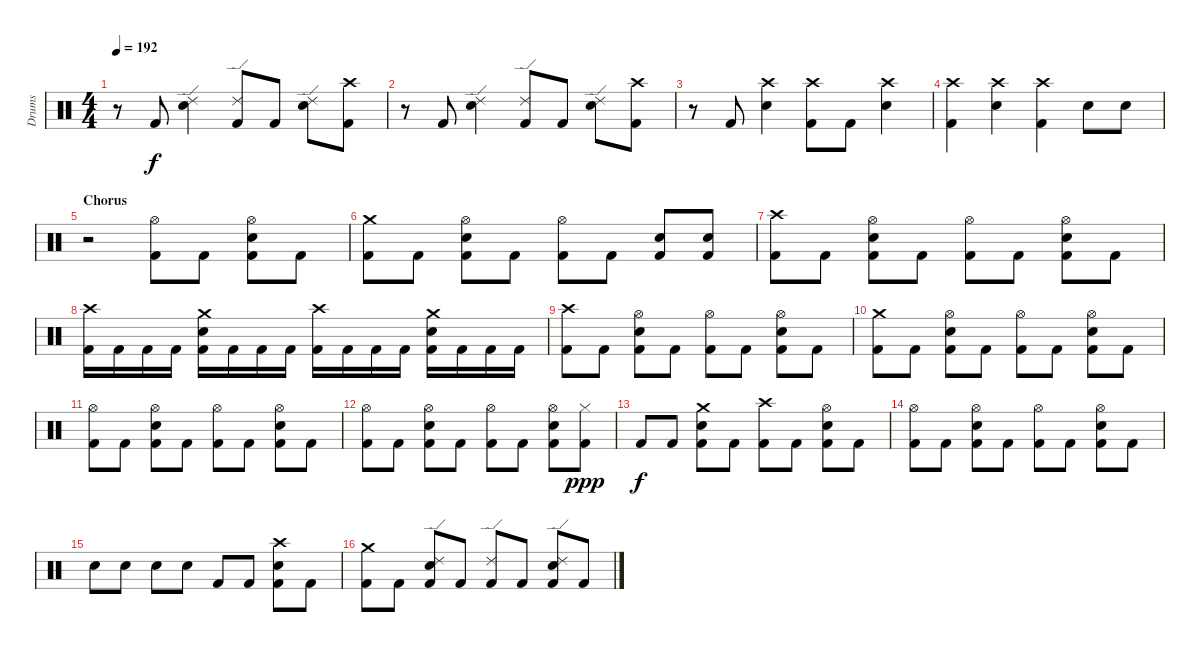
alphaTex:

\track ("Drums" "Drums") {instrument percussion}
\staff {score}
\articulation defaults
\ts (4 4)
\tempo 192
\clef neutral
\ks c
r.8{dy f} "Kick (hit) 2".8 ("Electric Snare (hit)" "Ride (edge) 2").4 ("Kick (hit) 2" "Ride (edge) 2").8 "Kick (hit) 2".8 ("Electric Snare (hit)" "Ride (edge) 2").8 ("Kick (hit) 2" "Crash high (hit)").8 |
r.8 "Kick (hit) 2".8 ("Electric Snare (hit)" "Ride (edge) 2").4 ("Kick (hit) 2" "Ride (edge) 2").8 "Kick (hit) 2".8 ("Electric Snare (hit)" "Ride (edge) 2").8 ("Kick (hit) 2" "Crash high (hit)").8 |
r.8 "Kick (hit) 2".8 ("Electric Snare (hit)" "Crash high (hit)").4 ("Kick (hit) 2" "Crash high (hit)").8 "Kick (hit) 2".8 ("Electric Snare (hit)" "Crash high (hit)").4 |
("Kick (hit) 2" "Crash high (hit)").4 ("Electric Snare (hit)" "Crash high (hit)").4 ("Kick (hit) 2" "Crash high (hit)").4 "Electric Snare (hit)".8 "Electric Snare (hit)".8 |
\section ("" "Chorus")
r.2 ("Kick (hit) 2" "Hi-Hat (open)").8 "Kick (hit) 2".8 ("Kick (hit) 2" "Electric Snare (hit)" "Hi-Hat (open)").8 "Kick (hit) 2".8 |
("Kick (hit) 2" "Crash medium (hit)").8 "Kick (hit) 2".8 ("Kick (hit) 2" "Electric Snare (hit)" "Hi-Hat (open)").8 "Kick (hit) 2".8 ("Kick (hit) 2" "Hi-Hat (open)").8 "Kick (hit) 2".8 ("Kick (hit) 2" "Electric Snare (hit)").8 ("Kick (hit) 2" "Electric Snare (hit)").8 |
("Kick (hit) 2" "Crash high (hit)").8 "Kick (hit) 2".8 ("Kick (hit) 2" "Electric Snare (hit)" "Hi-Hat (open)").8 "Kick (hit) 2".8 ("Kick (hit) 2" "Hi-Hat (open)").8 "Kick (hit) 2".8 ("Kick (hit) 2" "Electric Snare (hit)" "Hi-Hat (open)").8 "Kick (hit) 2".8 |
("Kick (hit) 2" "Crash high (hit)").16 "Kick (hit) 2".16 "Kick (hit) 2".16 "Kick (hit) 2".16 ("Kick (hit) 2" "Electric Snare (hit)" "Crash medium (hit)").16 "Kick (hit) 2".16 "Kick (hit) 2".16 "Kick (hit) 2".16 ("Kick (hit) 2" "Crash high (hit)").16 "Kick (hit) 2".16 "Kick (hit) 2".16 "Kick (hit) 2".16 ("Kick (hit) 2" "Electric Snare (hit)" "Crash medium (hit)").16 "Kick (hit) 2".16 "Kick (hit) 2".16 "Kick (hit) 2".16 |
("Kick (hit) 2" "Crash high (hit)").8 "Kick (hit) 2".8 ("Kick (hit) 2" "Electric Snare (hit)" "Hi-Hat (open)").8 "Kick (hit) 2".8 ("Kick (hit) 2" "Hi-Hat (open)").8 "Kick (hit) 2".8 ("Kick (hit) 2" "Electric Snare (hit)" "Hi-Hat (open)").8 "Kick (hit) 2".8 |
("Kick (hit) 2" "Crash medium (hit)").8 "Kick (hit) 2".8 ("Kick (hit) 2" "Electric Snare (hit)" "Hi-Hat (open)").8 "Kick (hit) 2".8 ("Kick (hit) 2" "Hi-Hat (open)").8 "Kick (hit) 2".8 ("Kick (hit) 2" "Electric Snare (hit)" "Hi-Hat (open)").8 "Kick (hit) 2".8 |
("Kick (hit) 2" "Hi-Hat (open)").8 "Kick (hit) 2".8 ("Kick (hit) 2" "Electric Snare (hit)" "Hi-Hat (open)").8 "Kick (hit) 2".8 ("Kick (hit) 2" "Hi-Hat (open)").8 "Kick (hit) 2".8 ("Kick (hit) 2" "Electric Snare (hit)" "Hi-Hat (open)").8 "Kick (hit) 2".8 |
("Kick (hit) 2" "Hi-Hat (open)").8 "Kick (hit) 2".8 ("Kick (hit) 2" "Electric Snare (hit)" "Hi-Hat (open)").8 "Kick (hit) 2".8 ("Kick (hit) 2" "Hi-Hat (open)").8 "Kick (hit) 2".8 ("Kick (hit) 2" "Electric Snare (hit)" "Hi-Hat (open)").8 ("Kick (hit) 2" "Hi-Hat (closed)").8{dy ppp} |
"Kick (hit) 2".8{dy f} "Kick (hit) 2".8 ("Kick (hit) 2" "Electric Snare (hit)" "Crash medium (hit)").8 "Kick (hit) 2".8 ("Kick (hit) 2" "Crash high (hit)").8 "Kick (hit) 2".8 ("Kick (hit) 2" "Electric Snare (hit)" "Hi-Hat (open)").8 "Kick (hit) 2".8 |
("Kick (hit) 2" "Hi-Hat (open)").8 "Kick (hit) 2".8 ("Kick (hit) 2" "Electric Snare (hit)" "Hi-Hat (open)").8 "Kick (hit) 2".8 ("Kick (hit) 2" "Hi-Hat (open)").8 "Kick (hit) 2".8 ("Kick (hit) 2" "Electric Snare (hit)" "Hi-Hat (open)").8 "Kick (hit) 2".8 |
\section ("" "")
"Electric Snare (hit)".8 "Electric Snare (hit)".8 "Electric Snare (hit)".8 "Electric Snare (hit)".8 "Kick (hit) 2".8 "Kick (hit) 2".8 ("Kick (hit) 2" "Electric Snare (hit)" "Crash high (hit)").8 "Kick (hit) 2".8 |
("Kick (hit) 2" "Crash medium (hit)").8 "Kick (hit) 2".8 ("Kick (hit) 2" "Electric Snare (hit)" "Ride (edge) 2").8 "Kick (hit) 2".8 ("Kick (hit) 2" "Ride (edge) 2").8 "Kick (hit) 2".8 ("Kick (hit) 2" "Electric Snare (hit)" "Ride (edge) 2").8 "Kick (hit) 2".8
